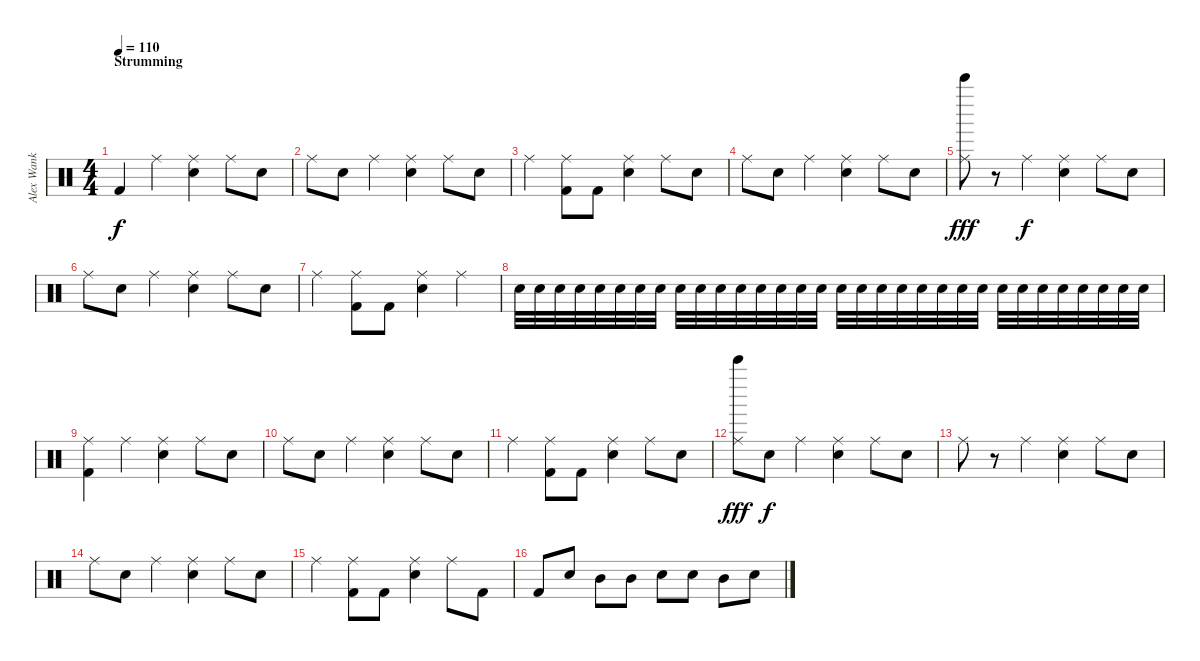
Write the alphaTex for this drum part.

\track ("Alex Wank" "Alex Wank") {instrument percussion}
\staff {score}
\articulation defaults
\ts (4 4)
\section ("" "Strumming")
\tempo 110
\clef neutral
\ks c "Kick (hit) 2".4{dy f} "Ride (middle)".4
("Ride (middle)" "Snare (hit) 2").4 "Ride (middle)".8 "Snare (hit) 2".8 |
"Ride (middle)".8 "Snare (hit) 2".8 "Ride (middle)".4 ("Ride (middle)" "Snare (hit) 2").4 "Ride (middle)".8 "Snare (hit) 2".8 |
"Ride (middle)".4 ("Kick (hit) 2" "Ride (middle)").8 "Kick (hit) 2".8 ("Ride (middle)" "Snare (hit) 2").4 "Ride (middle)".8 "Snare (hit) 2".8 |
"Ride (middle)".8 "Snare (hit) 2".8 "Ride (middle)".4 ("Ride (middle)" "Snare (hit) 2").4 "Ride (middle)".8 "Snare (hit) 2".8 |
("Ride (middle)" "Bell Tree (hit)").8{dy fff} r.8 "Ride (middle)".4{dy f} ("Ride (middle)" "Snare (hit) 2").4 "Ride (middle)".8 "Snare (hit) 2".8 |
"Ride (middle)".8 "Snare (hit) 2".8 "Ride (middle)".4 ("Ride (middle)" "Snare (hit) 2").4 "Ride (middle)".8 "Snare (hit) 2".8 |
"Ride (middle)".4 ("Kick (hit) 2" "Ride (middle)").8 "Kick (hit) 2".8 ("Ride (middle)" "Snare (hit) 2").4 "Ride (middle)".4 |
"Snare (hit) 2".32 "Snare (hit) 2".32 "Snare (hit) 2".32 "Snare (hit) 2".32 "Snare (hit) 2".32 "Snare (hit) 2".32 "Snare (hit) 2".32 "Snare (hit) 2".32 "Snare (hit) 2".32 "Snare (hit) 2".32 "Snare (hit) 2".32 "Snare (hit) 2".32 "Snare (hit) 2".32 "Snare (hit) 2".32 "Snare (hit) 2".32 "Snare (hit) 2".32 "Snare (hit) 2".32 "Snare (hit) 2".32 "Snare (hit) 2".32 "Snare (hit) 2".32 "Snare (hit) 2".32 "Snare (hit) 2".32 "Snare (hit) 2".32 "Snare (hit) 2".32 "Snare (hit) 2".32 "Snare (hit) 2".32 "Snare (hit) 2".32 "Snare (hit) 2".32 "Snare (hit) 2".32 "Snare (hit) 2".32 "Snare (hit) 2".32 "Snare (hit) 2".32 |
("Kick (hit) 2" "Ride (middle)").4 "Ride (middle)".4 ("Ride (middle)" "Snare (hit) 2").4 "Ride (middle)".8 "Snare (hit) 2".8 |
"Ride (middle)".8 "Snare (hit) 2".8 "Ride (middle)".4 ("Ride (middle)" "Snare (hit) 2").4 "Ride (middle)".8 "Snare (hit) 2".8 |
"Ride (middle)".4 ("Kick (hit) 2" "Ride (middle)").8 "Kick (hit) 2".8 ("Ride (middle)" "Snare (hit) 2").4 "Ride (middle)".8 "Snare (hit) 2".8 |
("Ride (middle)" "Bell Tree (hit)").8{dy fff} "Snare (hit) 2".8{dy f} "Ride (middle)".4 ("Ride (middle)" "Snare (hit) 2").4 "Ride (middle)".8 "Snare (hit) 2".8 |
"Ride (middle)".8 r.8 "Ride (middle)".4 ("Ride (middle)" "Snare (hit) 2").4 "Ride (middle)".8 "Snare (hit) 2".8 |
"Ride (middle)".8 "Snare (hit) 2".8 "Ride (middle)".4 ("Ride (middle)" "Snare (hit) 2").4 "Ride (middle)".8 "Snare (hit) 2".8 |
"Ride (middle)".4 ("Kick (hit) 2" "Ride (middle)").8 "Kick (hit) 2".8 ("Ride (middle)" "Snare (hit) 2").4 "Ride (middle)".8 "Kick (hit) 2".8 |
"Kick (hit) 2".8 "Snare (hit) 2".8 "Mid Tom (hit)".8 "Mid Tom (hit)".8 "Snare (hit) 2".8 "Snare (hit) 2".8 "Mid Tom (hit)".8 "Snare (hit) 2".8
